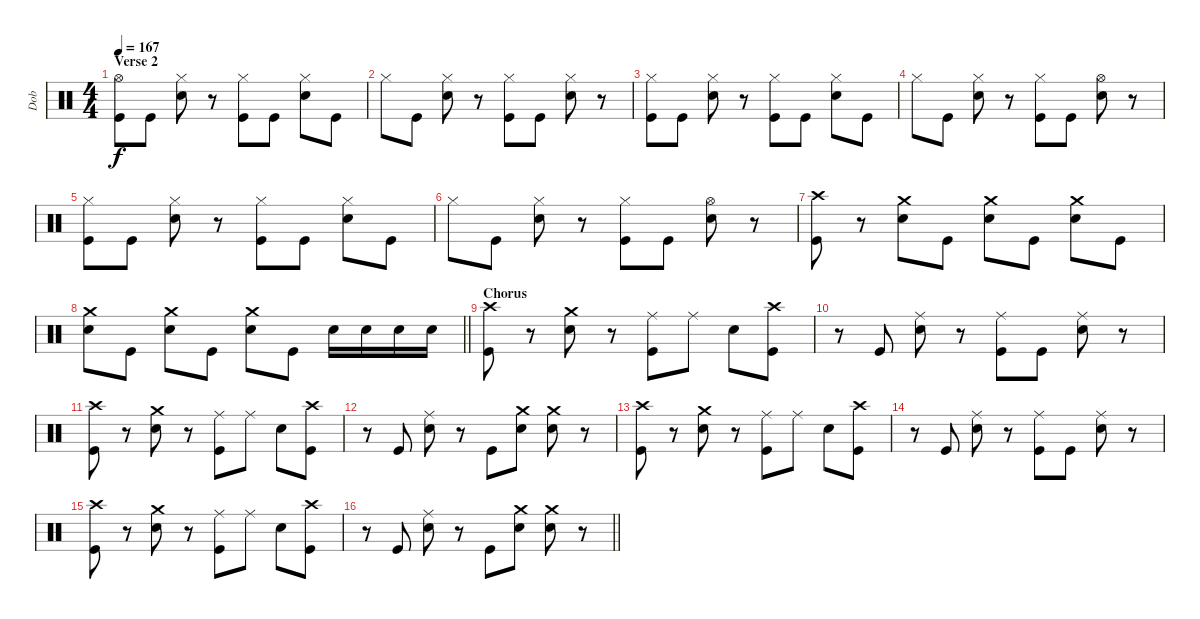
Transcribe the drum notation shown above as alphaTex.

\track ("Dob" "Dob") {instrument percussion}
\staff {score}
\articulation defaults
\ts (4 4)
\section ("" "Verse 2")
\tempo 167
\clef neutral
\ks c
("Hi-Hat (open)" "Kick (hit)").8{dy f} "Kick (hit)".8 ("Hi-Hat (closed)" "Snare (hit) 2").8 r.8 ("Hi-Hat (closed)" "Kick (hit)").8 "Kick (hit)".8 ("Hi-Hat (closed)" "Snare (hit) 2").8 "Kick (hit)".8 |
"Hi-Hat (closed)".8 "Kick (hit)".8 ("Hi-Hat (closed)" "Snare (hit) 2").8 r.8 ("Hi-Hat (closed)" "Kick (hit)").8 "Kick (hit)".8 ("Hi-Hat (closed)" "Snare (hit) 2").8 r.8 |
("Hi-Hat (closed)" "Kick (hit)").8 "Kick (hit)".8 ("Hi-Hat (closed)" "Snare (hit) 2").8 r.8 ("Hi-Hat (closed)" "Kick (hit)").8 "Kick (hit)".8 ("Hi-Hat (closed)" "Snare (hit) 2").8 "Kick (hit)".8 |
"Hi-Hat (closed)".8 "Kick (hit)".8 ("Hi-Hat (closed)" "Snare (hit) 2").8 r.8 ("Hi-Hat (closed)" "Kick (hit)").8 "Kick (hit)".8 ("Hi-Hat (open)" "Snare (hit) 2").8 r.8 |
("Hi-Hat (closed)" "Kick (hit)").8 "Kick (hit)".8 ("Hi-Hat (closed)" "Snare (hit) 2").8 r.8 ("Hi-Hat (closed)" "Kick (hit)").8 "Kick (hit)".8 ("Hi-Hat (closed)" "Snare (hit) 2").8 "Kick (hit)".8 |
"Hi-Hat (closed)".8 "Kick (hit)".8 ("Hi-Hat (closed)" "Snare (hit) 2").8 r.8 ("Hi-Hat (closed)" "Kick (hit)").8 "Kick (hit)".8 ("Hi-Hat (open)" "Snare (hit) 2").8 r.8 |
("Crash high (hit)" "Kick (hit)").8 r.8 ("Crash medium (hit)" "Snare (hit) 2").8 "Kick (hit)".8 ("Crash medium (hit)" "Snare (hit) 2").8 "Kick (hit)".8 ("Crash medium (hit)" "Snare (hit) 2").8 "Kick (hit)".8 |
\barLineRight lightlight
("Crash medium (hit)" "Snare (hit) 2").8 "Kick (hit)".8 ("Crash medium (hit)" "Snare (hit) 2").8 "Kick (hit)".8 ("Crash medium (hit)" "Snare (hit) 2").8 "Kick (hit)".8 "Snare (hit) 2".16 "Snare (hit) 2".16 "Snare (hit) 2".16 "Snare (hit) 2".16 |
\section ("" "Chorus")
("Crash high (hit)" "Kick (hit)").8 r.8 ("Crash medium (hit)" "Snare (hit) 2").8 r.8 ("Ride (middle)" "Kick (hit)").8 "Ride (middle)".8 "Snare (hit) 2".8 ("Crash high (hit)" "Kick (hit)").8 |
r.8 "Kick (hit)".8 ("Ride (middle)" "Snare (hit) 2").8 r.8 ("Ride (middle)" "Kick (hit)").8 "Kick (hit)".8 ("Ride (middle)" "Snare (hit) 2").8 r.8 |
("Crash high (hit)" "Kick (hit)").8 r.8 ("Crash medium (hit)" "Snare (hit) 2").8 r.8 ("Ride (middle)" "Kick (hit)").8 "Ride (middle)".8 "Snare (hit) 2".8 ("Crash high (hit)" "Kick (hit)").8 |
r.8 "Kick (hit)".8 ("Ride (middle)" "Snare (hit) 2").8 r.8 "Kick (hit)".8 ("Crash medium (hit)" "Snare (hit) 2").8 ("Crash medium (hit)" "Snare (hit) 2").8 r.8 |
("Crash high (hit)" "Kick (hit)").8 r.8 ("Crash medium (hit)" "Snare (hit) 2").8 r.8 ("Ride (middle)" "Kick (hit)").8 "Ride (middle)".8 "Snare (hit) 2".8 ("Crash high (hit)" "Kick (hit)").8 |
r.8 "Kick (hit)".8 ("Ride (middle)" "Snare (hit) 2").8 r.8 ("Ride (middle)" "Kick (hit)").8 "Kick (hit)".8 ("Ride (middle)" "Snare (hit) 2").8 r.8 |
("Crash high (hit)" "Kick (hit)").8 r.8 ("Crash medium (hit)" "Snare (hit) 2").8 r.8 ("Ride (middle)" "Kick (hit)").8 "Ride (middle)".8 "Snare (hit) 2".8 ("Crash high (hit)" "Kick (hit)").8 |
\barLineRight lightlight
r.8 "Kick (hit)".8 ("Ride (middle)" "Snare (hit) 2").8 r.8 "Kick (hit)".8 ("Crash medium (hit)" "Snare (hit) 2").8 ("Crash medium (hit)" "Snare (hit) 2").8 r.8
